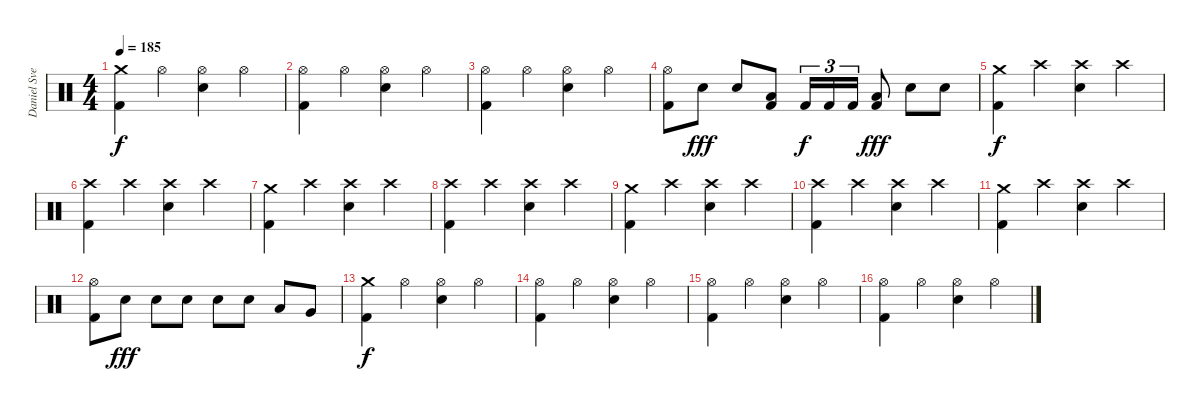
\track ("Daniel Svensson" "Daniel Sve") {instrument percussion}
\staff {score}
\articulation defaults
\ts (4 4)
\tempo 185
\clef neutral
\ks c
("Kick (hit) 2" "Crash medium (hit)").4{dy f} "Hi-Hat (open)".4 ("Electric Snare (hit)" "Hi-Hat (open)").4 "Hi-Hat (open)".4 |
("Kick (hit) 2" "Hi-Hat (open)").4 "Hi-Hat (open)".4 ("Electric Snare (hit)" "Hi-Hat (open)").4 "Hi-Hat (open)".4 |
("Kick (hit) 2" "Hi-Hat (open)").4 "Hi-Hat (open)".4 ("Electric Snare (hit)" "Hi-Hat (open)").4 "Hi-Hat (open)".4 |
("Kick (hit) 2" "Hi-Hat (open)").8 "Electric Snare (hit)".8{dy fff} "Electric Snare (hit)".8 ("Kick (hit) 2" "Low Tom (hit)").8 "Kick (hit) 2".16{tu (3 2) dy f} "Kick (hit) 2".16{tu (3 2)} "Kick (hit) 2".16{tu (3 2)} ("Kick (hit) 2" "Low Tom (hit)").8{dy fff} "Electric Snare (hit)".8 "Electric Snare (hit)".8 |
("Kick (hit) 2" "Crash medium (hit)").4{dy f} "Crash high (hit)".4 ("Electric Snare (hit)" "Crash high (hit)").4 "Crash high (hit)".4 |
("Kick (hit) 2" "Crash high (hit)").4 "Crash high (hit)".4 ("Electric Snare (hit)" "Crash high (hit)").4 "Crash high (hit)".4 |
("Kick (hit) 2" "Crash medium (hit)").4 "Crash high (hit)".4 ("Electric Snare (hit)" "Crash high (hit)").4 "Crash high (hit)".4 |
("Kick (hit) 2" "Crash high (hit)").4 "Crash high (hit)".4 ("Electric Snare (hit)" "Crash high (hit)").4 "Crash high (hit)".4 |
("Kick (hit) 2" "Crash medium (hit)").4 "Crash high (hit)".4 ("Electric Snare (hit)" "Crash high (hit)").4 "Crash high (hit)".4 |
("Kick (hit) 2" "Crash high (hit)").4 "Crash high (hit)".4 ("Electric Snare (hit)" "Crash high (hit)").4 "Crash high (hit)".4 |
("Kick (hit) 2" "Crash medium (hit)").4 "Crash high (hit)".4 ("Electric Snare (hit)" "Crash high (hit)").4 "Crash high (hit)".4 |
("Kick (hit) 2" "Hi-Hat (open)").8 "Electric Snare (hit)".8{dy fff} "Electric Snare (hit)".8 "Electric Snare (hit)".8 "Electric Snare (hit)".8 "Electric Snare (hit)".8 "Low Tom (hit)".8 "Very Low Tom (hit)".8 |
("Kick (hit) 2" "Crash medium (hit)").4{dy f} "Hi-Hat (open)".4 ("Electric Snare (hit)" "Hi-Hat (open)").4 "Hi-Hat (open)".4 |
("Kick (hit) 2" "Hi-Hat (open)").4 "Hi-Hat (open)".4 ("Electric Snare (hit)" "Hi-Hat (open)").4 "Hi-Hat (open)".4 |
("Kick (hit) 2" "Hi-Hat (open)").4 "Hi-Hat (open)".4 ("Electric Snare (hit)" "Hi-Hat (open)").4 "Hi-Hat (open)".4 |
("Kick (hit) 2" "Hi-Hat (open)").4 "Hi-Hat (open)".4 ("Electric Snare (hit)" "Hi-Hat (open)").4 "Hi-Hat (open)".4
